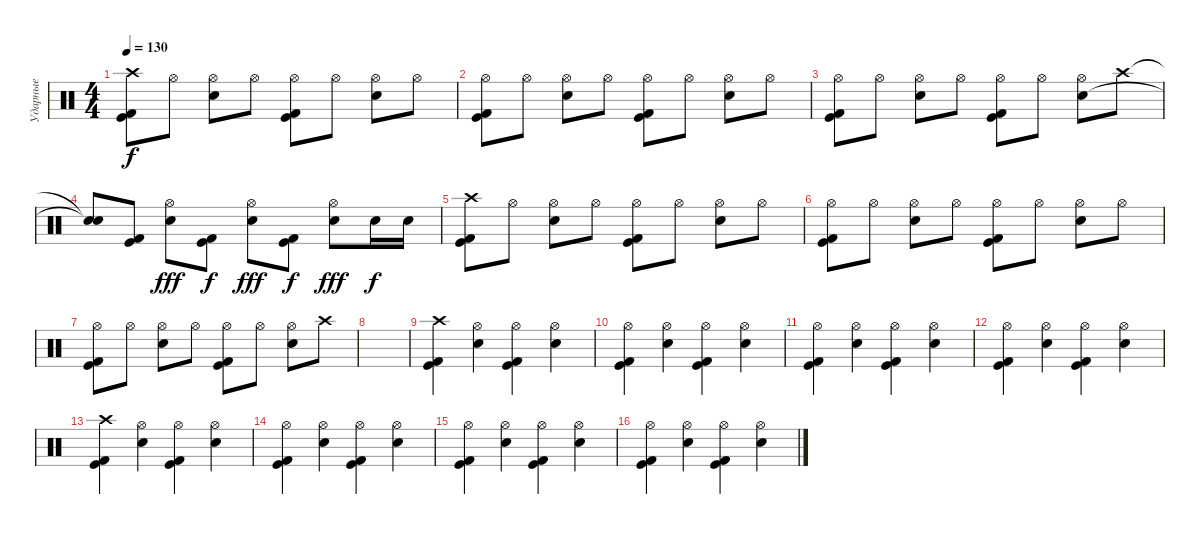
\track ("Ударные" "Ударные") {instrument percussion}
\staff {score}
\articulation defaults
\ts (4 4)
\tempo 130
\clef neutral
\ks c
("Crash high (hit)" "Kick (hit) 2" "Kick (hit)").8{dy f} "Hi-Hat (open)".8 ("Hi-Hat (open)" "Electric Snare (hit)").8 "Hi-Hat (open)".8 ("Hi-Hat (open)" "Kick (hit) 2" "Kick (hit)").8 "Hi-Hat (open)".8 ("Hi-Hat (open)" "Electric Snare (hit)").8 "Hi-Hat (open)".8 |
("Hi-Hat (open)" "Kick (hit) 2" "Kick (hit)").8 "Hi-Hat (open)".8 ("Hi-Hat (open)" "Electric Snare (hit)").8 "Hi-Hat (open)".8 ("Hi-Hat (open)" "Kick (hit) 2" "Kick (hit)").8 "Hi-Hat (open)".8 ("Hi-Hat (open)" "Electric Snare (hit)").8 "Hi-Hat (open)".8 |
("Hi-Hat (open)" "Kick (hit) 2" "Kick (hit)").8 "Hi-Hat (open)".8 ("Hi-Hat (open)" "Electric Snare (hit)").8 "Hi-Hat (open)".8 ("Hi-Hat (open)" "Kick (hit) 2" "Kick (hit)").8 "Hi-Hat (open)".8 ("Hi-Hat (open)" "Electric Snare (hit)").8 "Crash high (hit)".8 |
("Snare (hit)"{t} "Snare (hit)"{t}).8 ("Kick (hit) 2" "Kick (hit)").8 ("Hi-Hat (open)" "Electric Snare (hit)").8{dy fff} ("Kick (hit) 2" "Kick (hit)").8{dy f} ("Hi-Hat (open)" "Electric Snare (hit)").8{dy fff} ("Kick (hit) 2" "Kick (hit)").8{dy f} ("Hi-Hat (open)" "Electric Snare (hit)").8{dy fff} "Electric Snare (hit)".16{dy f} "Electric Snare (hit)".16 |
("Crash high (hit)" "Kick (hit) 2" "Kick (hit)").8 "Hi-Hat (open)".8 ("Hi-Hat (open)" "Electric Snare (hit)").8 "Hi-Hat (open)".8 ("Hi-Hat (open)" "Kick (hit) 2" "Kick (hit)").8 "Hi-Hat (open)".8 ("Hi-Hat (open)" "Electric Snare (hit)").8 "Hi-Hat (open)".8 |
("Hi-Hat (open)" "Kick (hit) 2" "Kick (hit)").8 "Hi-Hat (open)".8 ("Hi-Hat (open)" "Electric Snare (hit)").8 "Hi-Hat (open)".8 ("Hi-Hat (open)" "Kick (hit) 2" "Kick (hit)").8 "Hi-Hat (open)".8 ("Hi-Hat (open)" "Electric Snare (hit)").8 "Hi-Hat (open)".8 |
("Hi-Hat (open)" "Kick (hit) 2" "Kick (hit)").8 "Hi-Hat (open)".8 ("Hi-Hat (open)" "Electric Snare (hit)").8 "Hi-Hat (open)".8 ("Hi-Hat (open)" "Kick (hit) 2" "Kick (hit)").8 "Hi-Hat (open)".8 ("Hi-Hat (open)" "Electric Snare (hit)").8 "Crash high (hit)".8 |
|
("Crash high (hit)" "Kick (hit) 2" "Kick (hit)").4 ("Hi-Hat (open)" "Electric Snare (hit)").4 ("Hi-Hat (open)" "Kick (hit) 2" "Kick (hit)").4 ("Hi-Hat (open)" "Electric Snare (hit)").4 |
("Hi-Hat (open)" "Kick (hit) 2" "Kick (hit)").4 ("Hi-Hat (open)" "Electric Snare (hit)").4 ("Hi-Hat (open)" "Kick (hit) 2" "Kick (hit)").4 ("Hi-Hat (open)" "Electric Snare (hit)").4 |
("Hi-Hat (open)" "Kick (hit) 2" "Kick (hit)").4 ("Hi-Hat (open)" "Electric Snare (hit)").4 ("Hi-Hat (open)" "Kick (hit) 2" "Kick (hit)").4 ("Hi-Hat (open)" "Electric Snare (hit)").4 |
("Hi-Hat (open)" "Kick (hit) 2" "Kick (hit)").4 ("Hi-Hat (open)" "Electric Snare (hit)").4 ("Hi-Hat (open)" "Kick (hit) 2" "Kick (hit)").4 ("Hi-Hat (open)" "Electric Snare (hit)").4 |
("Crash high (hit)" "Kick (hit) 2" "Kick (hit)").4 ("Hi-Hat (open)" "Electric Snare (hit)").4 ("Hi-Hat (open)" "Kick (hit) 2" "Kick (hit)").4 ("Hi-Hat (open)" "Electric Snare (hit)").4 |
("Hi-Hat (open)" "Kick (hit) 2" "Kick (hit)").4 ("Hi-Hat (open)" "Electric Snare (hit)").4 ("Hi-Hat (open)" "Kick (hit) 2" "Kick (hit)").4 ("Hi-Hat (open)" "Electric Snare (hit)").4 |
("Hi-Hat (open)" "Kick (hit) 2" "Kick (hit)").4 ("Hi-Hat (open)" "Electric Snare (hit)").4 ("Hi-Hat (open)" "Kick (hit) 2" "Kick (hit)").4 ("Hi-Hat (open)" "Electric Snare (hit)").4 |
("Hi-Hat (open)" "Kick (hit) 2" "Kick (hit)").4 ("Hi-Hat (open)" "Electric Snare (hit)").4 ("Hi-Hat (open)" "Kick (hit) 2" "Kick (hit)").4 ("Hi-Hat (open)" "Electric Snare (hit)").4
